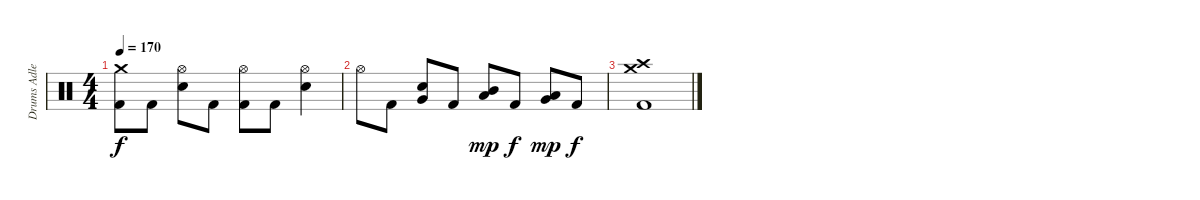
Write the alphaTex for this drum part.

\track ("Drums Adler" "Drums Adle") {instrument percussion}
\staff {score}
\articulation defaults
\ts (4 4)
\tempo 170
\clef neutral
\ks c
("Crash medium (hit)" "Kick (hit) 2").8{dy f} "Kick (hit) 2".8 ("Hi-Hat (open)" "Snare (hit) 2").8 "Kick (hit) 2".8 ("Hi-Hat (open)" "Kick (hit) 2").8 "Kick (hit) 2".8 ("Hi-Hat (open)" "Snare (hit) 2").4 |
"Hi-Hat (open)".8 "Kick (hit) 2".8 ("Very Low Tom (hit)" "Snare (hit) 2").8 "Kick (hit) 2".8 ("Low Tom (hit)" "Mid Tom (hit)").8{dy mp} "Kick (hit) 2".8{dy f} ("Very Low Tom (hit)" "Low Tom (hit)").8{dy mp} "Kick (hit) 2".8{dy f} |
("Crash high (hit)" "Crash medium (hit)" "Kick (hit) 2").1
